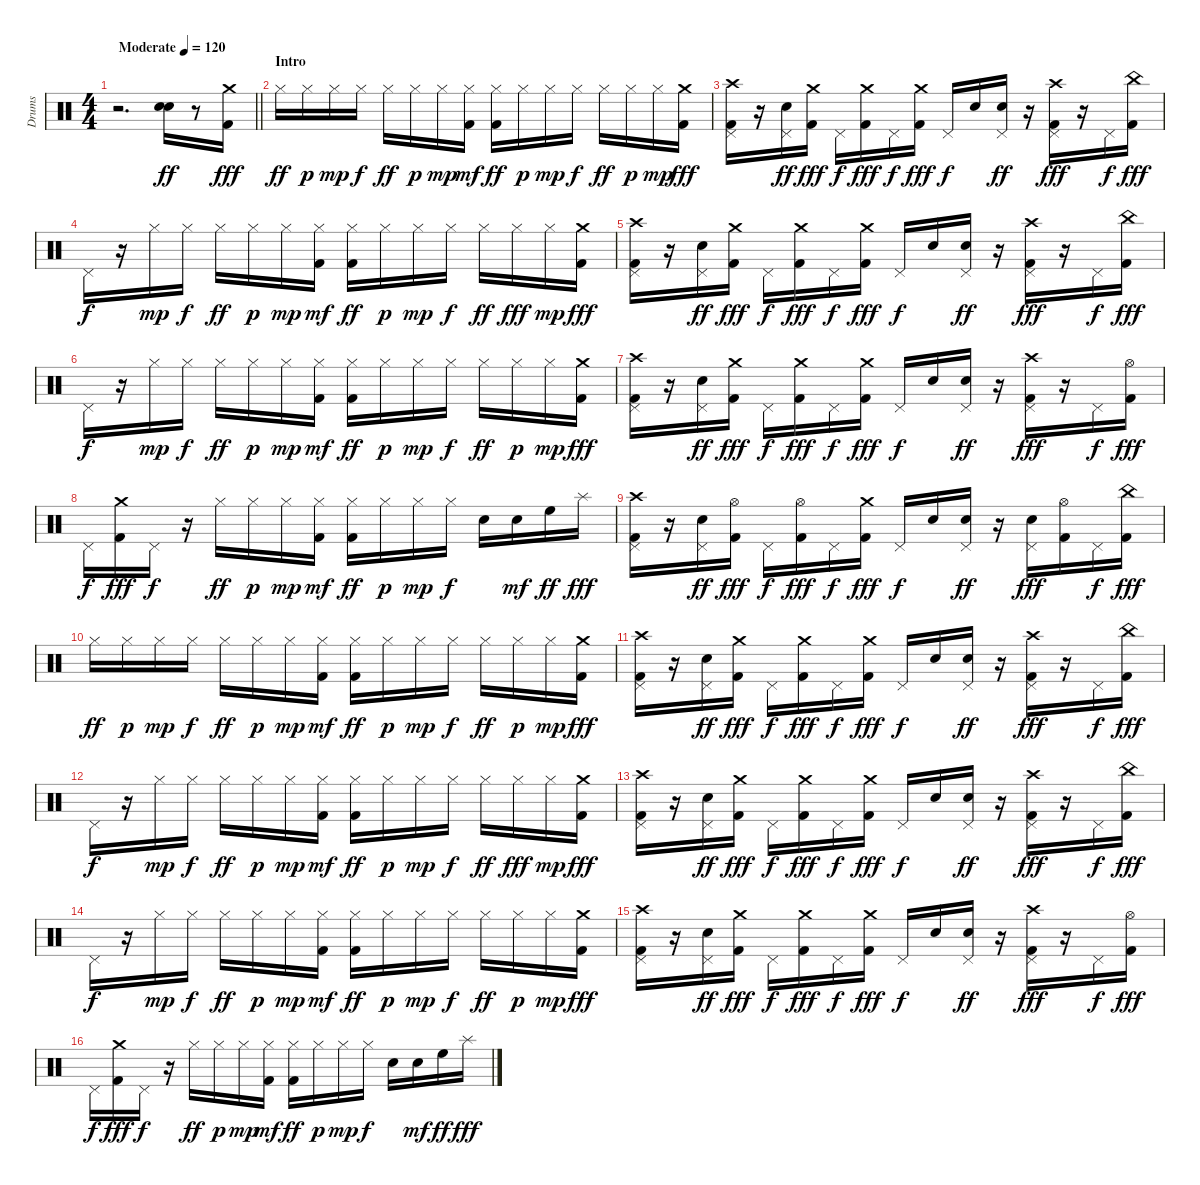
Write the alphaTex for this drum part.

\track ("Drums" "Drums") {instrument percussion}
\staff {score}
\articulation defaults
\ts (4 4)
\tempo (120 "Moderate")
\clef neutral
\barLineRight lightlight
\ks c
r.2{d dy ff} ("Snare (hit) 2" "Snare (hit) 2").16 r.8 ("Crash medium (hit)" "Kick (hit) 2").16{dy fff} |
\section ("" "Intro")
"Hi-Hat (closed)".16{dy ff} "Hi-Hat (closed)".16{dy p} "Hi-Hat (closed)".16{dy mp} "Hi-Hat (closed)".16{dy f} "Hi-Hat (closed)".16{dy ff} "Hi-Hat (closed)".16{dy p} "Hi-Hat (closed)".16{dy mp} ("Hi-Hat (closed)" "Kick (hit) 2").16{dy mf} ("Hi-Hat (closed)" "Kick (hit) 2").16{dy ff} "Hi-Hat (closed)".16{dy p} "Hi-Hat (closed)".16{dy mp} "Hi-Hat (closed)".16{dy f} "Hi-Hat (closed)".16{dy ff} "Hi-Hat (closed)".16{dy p} "Hi-Hat (closed)".16{dy mp} ("Crash medium (hit)" "Kick (hit) 2").16{dy fff} |
("Crash high (hit)" "Kick (hit) 2" "Pedal Hi-Hat (hit)").16 r.16 ("Snare (hit) 2" "Pedal Hi-Hat (hit)").16{dy ff} ("Kick (hit) 2" "Crash medium (hit)").16{dy fff} "Pedal Hi-Hat (hit)".16{dy f} ("Kick (hit) 2" "Crash medium (hit)").16{dy fff} "Pedal Hi-Hat (hit)".16{dy f} ("Kick (hit) 2" "Crash medium (hit)").16{dy fff} "Pedal Hi-Hat (hit)".16{dy f} "Snare (hit) 2".16 ("Snare (hit) 2" "Pedal Hi-Hat (hit)").16{dy ff} r.16 ("Kick (hit) 2" "Crash high (hit)" "Pedal Hi-Hat (hit)").16{dy fff} r.16 "Pedal Hi-Hat (hit)".16{dy f} ("Kick (hit) 2" "China (hit)").16{dy fff} |
"Pedal Hi-Hat (hit)".16{dy f} r.16 "Hi-Hat (closed)".16{dy mp} "Hi-Hat (closed)".16{dy f} "Hi-Hat (closed)".16{dy ff} "Hi-Hat (closed)".16{dy p} "Hi-Hat (closed)".16{dy mp} ("Hi-Hat (closed)" "Kick (hit) 2").16{dy mf} ("Hi-Hat (closed)" "Kick (hit) 2").16{dy ff} "Hi-Hat (closed)".16{dy p} "Hi-Hat (closed)".16{dy mp} "Hi-Hat (closed)".16{dy f} "Hi-Hat (closed)".16{dy ff} "Hi-Hat (closed)".16{dy fff} "Hi-Hat (closed)".16{dy mp} ("Crash medium (hit)" "Kick (hit) 2").16{dy fff} |
("Crash high (hit)" "Kick (hit) 2" "Pedal Hi-Hat (hit)").16 r.16 ("Snare (hit) 2" "Pedal Hi-Hat (hit)").16{dy ff} ("Kick (hit) 2" "Crash medium (hit)").16{dy fff} "Pedal Hi-Hat (hit)".16{dy f} ("Kick (hit) 2" "Crash medium (hit)").16{dy fff} "Pedal Hi-Hat (hit)".16{dy f} ("Kick (hit) 2" "Crash medium (hit)").16{dy fff} "Pedal Hi-Hat (hit)".16{dy f} "Snare (hit) 2".16 ("Snare (hit) 2" "Pedal Hi-Hat (hit)").16{dy ff} r.16 ("Kick (hit) 2" "Crash high (hit)" "Pedal Hi-Hat (hit)").16{dy fff} r.16 "Pedal Hi-Hat (hit)".16{dy f} ("Kick (hit) 2" "China (hit)").16{dy fff} |
"Pedal Hi-Hat (hit)".16{dy f} r.16 "Hi-Hat (closed)".16{dy mp} "Hi-Hat (closed)".16{dy f} "Hi-Hat (closed)".16{dy ff} "Hi-Hat (closed)".16{dy p} "Hi-Hat (closed)".16{dy mp} ("Hi-Hat (closed)" "Kick (hit) 2").16{dy mf} ("Hi-Hat (closed)" "Kick (hit) 2").16{dy ff} "Hi-Hat (closed)".16{dy p} "Hi-Hat (closed)".16{dy mp} "Hi-Hat (closed)".16{dy f} "Hi-Hat (closed)".16{dy ff} "Hi-Hat (closed)".16{dy p} "Hi-Hat (closed)".16{dy mp} ("Crash medium (hit)" "Kick (hit) 2").16{dy fff} |
("Crash high (hit)" "Kick (hit) 2" "Pedal Hi-Hat (hit)").16 r.16 ("Snare (hit) 2" "Pedal Hi-Hat (hit)").16{dy ff} ("Kick (hit) 2" "Crash medium (hit)").16{dy fff} "Pedal Hi-Hat (hit)".16{dy f} ("Kick (hit) 2" "Crash medium (hit)").16{dy fff} "Pedal Hi-Hat (hit)".16{dy f} ("Kick (hit) 2" "Crash medium (hit)").16{dy fff} "Pedal Hi-Hat (hit)".16{dy f} "Snare (hit) 2".16 ("Snare (hit) 2" "Pedal Hi-Hat (hit)").16{dy ff} r.16 ("Kick (hit) 2" "Crash high (hit)" "Pedal Hi-Hat (hit)").16{dy fff} r.16 "Pedal Hi-Hat (hit)".16{dy f} ("Kick (hit) 2" "Hi-Hat (open)").16{dy fff} |
"Pedal Hi-Hat (hit)".16{dy f} ("Crash medium (hit)" "Kick (hit) 2").16{dy fff} "Pedal Hi-Hat (hit)".16{dy f} r.16 "Hi-Hat (closed)".16{dy ff} "Hi-Hat (closed)".16{dy p} "Hi-Hat (closed)".16{dy mp} ("Hi-Hat (closed)" "Kick (hit) 2").16{dy mf} ("Hi-Hat (closed)" "Kick (hit) 2").16{dy ff} "Hi-Hat (closed)".16{dy p} "Hi-Hat (closed)".16{dy mp} "Hi-Hat (closed)".16{dy f} "Snare (hit) 2".16 "Snare (hit) 2".16{dy mf} "High Floor Tom (hit)".16{dy ff} "Splash (hit)".16{dy fff} |
("Crash high (hit)" "Kick (hit) 2" "Pedal Hi-Hat (hit)").16 r.16 ("Snare (hit) 2" "Pedal Hi-Hat (hit)").16{dy ff} ("Kick (hit) 2" "Hi-Hat (open)").16{dy fff} "Pedal Hi-Hat (hit)".16{dy f} ("Kick (hit) 2" "Hi-Hat (open)").16{dy fff} "Pedal Hi-Hat (hit)".16{dy f} ("Kick (hit) 2" "Crash medium (hit)").16{dy fff} "Pedal Hi-Hat (hit)".16{dy f} "Snare (hit) 2".16 ("Snare (hit) 2" "Pedal Hi-Hat (hit)").16{dy ff} r.16 ("Pedal Hi-Hat (hit)" "Snare (hit) 2").16{dy fff} ("Kick (hit) 2" "Hi-Hat (open)").16 "Pedal Hi-Hat (hit)".16{dy f} ("Kick (hit) 2" "China (hit)").16{dy fff} |
"Hi-Hat (closed)".16{dy ff} "Hi-Hat (closed)".16{dy p} "Hi-Hat (closed)".16{dy mp} "Hi-Hat (closed)".16{dy f} "Hi-Hat (closed)".16{dy ff} "Hi-Hat (closed)".16{dy p} "Hi-Hat (closed)".16{dy mp} ("Hi-Hat (closed)" "Kick (hit) 2").16{dy mf} ("Hi-Hat (closed)" "Kick (hit) 2").16{dy ff} "Hi-Hat (closed)".16{dy p} "Hi-Hat (closed)".16{dy mp} "Hi-Hat (closed)".16{dy f} "Hi-Hat (closed)".16{dy ff} "Hi-Hat (closed)".16{dy p} "Hi-Hat (closed)".16{dy mp} ("Crash medium (hit)" "Kick (hit) 2").16{dy fff} |
("Crash high (hit)" "Kick (hit) 2" "Pedal Hi-Hat (hit)").16 r.16 ("Snare (hit) 2" "Pedal Hi-Hat (hit)").16{dy ff} ("Kick (hit) 2" "Crash medium (hit)").16{dy fff} "Pedal Hi-Hat (hit)".16{dy f} ("Kick (hit) 2" "Crash medium (hit)").16{dy fff} "Pedal Hi-Hat (hit)".16{dy f} ("Kick (hit) 2" "Crash medium (hit)").16{dy fff} "Pedal Hi-Hat (hit)".16{dy f} "Snare (hit) 2".16 ("Snare (hit) 2" "Pedal Hi-Hat (hit)").16{dy ff} r.16 ("Kick (hit) 2" "Crash high (hit)" "Pedal Hi-Hat (hit)").16{dy fff} r.16 "Pedal Hi-Hat (hit)".16{dy f} ("Kick (hit) 2" "China (hit)").16{dy fff} |
"Pedal Hi-Hat (hit)".16{dy f} r.16 "Hi-Hat (closed)".16{dy mp} "Hi-Hat (closed)".16{dy f} "Hi-Hat (closed)".16{dy ff} "Hi-Hat (closed)".16{dy p} "Hi-Hat (closed)".16{dy mp} ("Hi-Hat (closed)" "Kick (hit) 2").16{dy mf} ("Hi-Hat (closed)" "Kick (hit) 2").16{dy ff} "Hi-Hat (closed)".16{dy p} "Hi-Hat (closed)".16{dy mp} "Hi-Hat (closed)".16{dy f} "Hi-Hat (closed)".16{dy ff} "Hi-Hat (closed)".16{dy fff} "Hi-Hat (closed)".16{dy mp} ("Crash medium (hit)" "Kick (hit) 2").16{dy fff} |
("Crash high (hit)" "Kick (hit) 2" "Pedal Hi-Hat (hit)").16 r.16 ("Snare (hit) 2" "Pedal Hi-Hat (hit)").16{dy ff} ("Kick (hit) 2" "Crash medium (hit)").16{dy fff} "Pedal Hi-Hat (hit)".16{dy f} ("Kick (hit) 2" "Crash medium (hit)").16{dy fff} "Pedal Hi-Hat (hit)".16{dy f} ("Kick (hit) 2" "Crash medium (hit)").16{dy fff} "Pedal Hi-Hat (hit)".16{dy f} "Snare (hit) 2".16 ("Snare (hit) 2" "Pedal Hi-Hat (hit)").16{dy ff} r.16 ("Kick (hit) 2" "Crash high (hit)" "Pedal Hi-Hat (hit)").16{dy fff} r.16 "Pedal Hi-Hat (hit)".16{dy f} ("Kick (hit) 2" "China (hit)").16{dy fff} |
"Pedal Hi-Hat (hit)".16{dy f} r.16 "Hi-Hat (closed)".16{dy mp} "Hi-Hat (closed)".16{dy f} "Hi-Hat (closed)".16{dy ff} "Hi-Hat (closed)".16{dy p} "Hi-Hat (closed)".16{dy mp} ("Hi-Hat (closed)" "Kick (hit) 2").16{dy mf} ("Hi-Hat (closed)" "Kick (hit) 2").16{dy ff} "Hi-Hat (closed)".16{dy p} "Hi-Hat (closed)".16{dy mp} "Hi-Hat (closed)".16{dy f} "Hi-Hat (closed)".16{dy ff} "Hi-Hat (closed)".16{dy p} "Hi-Hat (closed)".16{dy mp} ("Crash medium (hit)" "Kick (hit) 2").16{dy fff} |
("Crash high (hit)" "Kick (hit) 2" "Pedal Hi-Hat (hit)").16 r.16 ("Snare (hit) 2" "Pedal Hi-Hat (hit)").16{dy ff} ("Kick (hit) 2" "Crash medium (hit)").16{dy fff} "Pedal Hi-Hat (hit)".16{dy f} ("Kick (hit) 2" "Crash medium (hit)").16{dy fff} "Pedal Hi-Hat (hit)".16{dy f} ("Kick (hit) 2" "Crash medium (hit)").16{dy fff} "Pedal Hi-Hat (hit)".16{dy f} "Snare (hit) 2".16 ("Snare (hit) 2" "Pedal Hi-Hat (hit)").16{dy ff} r.16 ("Kick (hit) 2" "Crash high (hit)" "Pedal Hi-Hat (hit)").16{dy fff} r.16 "Pedal Hi-Hat (hit)".16{dy f} ("Kick (hit) 2" "Hi-Hat (open)").16{dy fff} |
"Pedal Hi-Hat (hit)".16{dy f} ("Crash medium (hit)" "Kick (hit) 2").16{dy fff} "Pedal Hi-Hat (hit)".16{dy f} r.16 "Hi-Hat (closed)".16{dy ff} "Hi-Hat (closed)".16{dy p} "Hi-Hat (closed)".16{dy mp} ("Hi-Hat (closed)" "Kick (hit) 2").16{dy mf} ("Hi-Hat (closed)" "Kick (hit) 2").16{dy ff} "Hi-Hat (closed)".16{dy p} "Hi-Hat (closed)".16{dy mp} "Hi-Hat (closed)".16{dy f} "Snare (hit) 2".16 "Snare (hit) 2".16{dy mf} "High Floor Tom (hit)".16{dy ff} "Splash (hit)".16{dy fff}
